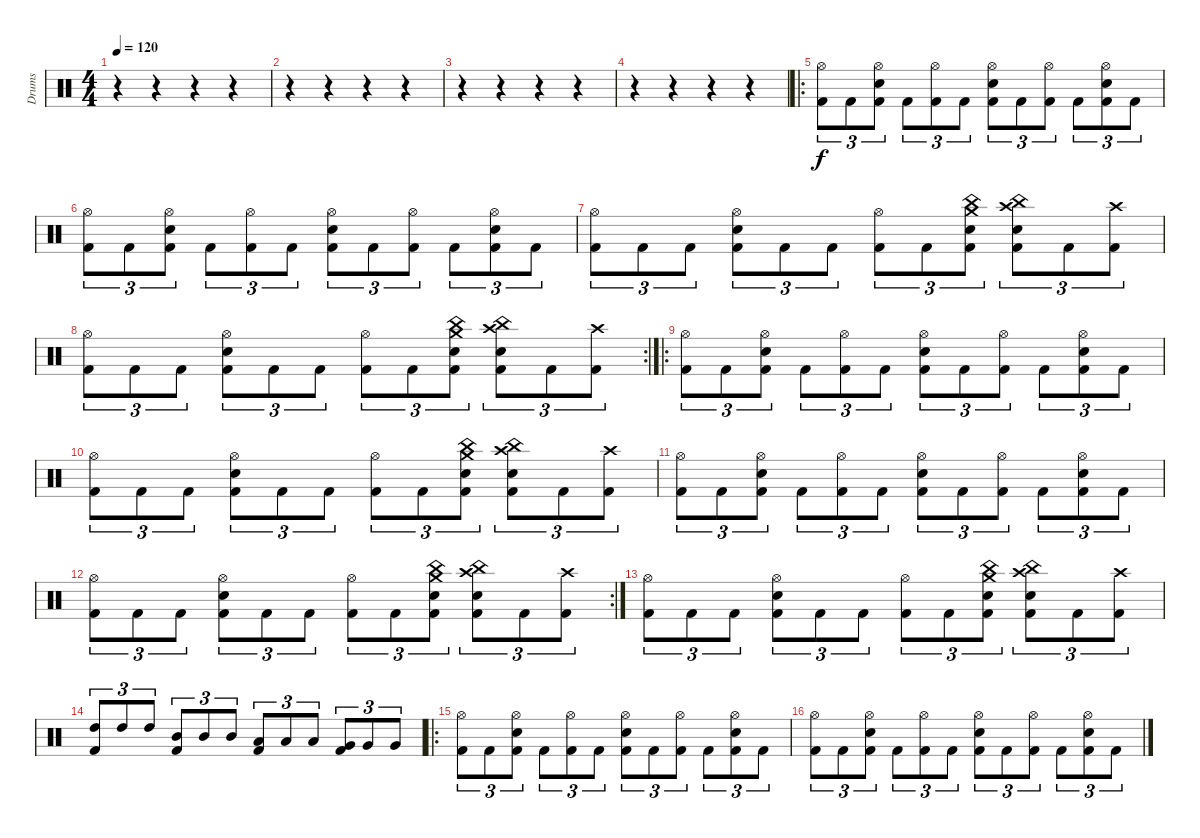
\track ("Drums" "Drums") {instrument percussion}
\staff {score}
\articulation defaults
\ts (4 4)
\tempo 120
\clef neutral
\ks c
r.4{dy f} r.4 r.4 r.4 |
r.4 r.4 r.4 r.4 |
r.4 r.4 r.4 r.4 |
r.4 r.4 r.4 r.4 |
\ro
("Hi-Hat (open)" "Kick (hit) 2").8{tu (3 2)} "Kick (hit) 2".8{tu (3 2)} ("Hi-Hat (open)" "Snare (hit) 2" "Kick (hit) 2").8{tu (3 2)} "Kick (hit) 2".8{tu (3 2)} ("Hi-Hat (open)" "Kick (hit) 2").8{tu (3 2)} "Kick (hit) 2".8{tu (3 2)} ("Hi-Hat (open)" "Snare (hit) 2" "Kick (hit) 2").8{tu (3 2)} "Kick (hit) 2".8{tu (3 2)} ("Hi-Hat (open)" "Kick (hit) 2").8{tu (3 2)} "Kick (hit) 2".8{tu (3 2)} ("Hi-Hat (open)" "Snare (hit) 2" "Kick (hit) 2").8{tu (3 2)} "Kick (hit) 2".8{tu (3 2)} |
("Hi-Hat (open)" "Kick (hit) 2").8{tu (3 2)} "Kick (hit) 2".8{tu (3 2)} ("Hi-Hat (open)" "Snare (hit) 2" "Kick (hit) 2").8{tu (3 2)} "Kick (hit) 2".8{tu (3 2)} ("Hi-Hat (open)" "Kick (hit) 2").8{tu (3 2)} "Kick (hit) 2".8{tu (3 2)} ("Hi-Hat (open)" "Snare (hit) 2" "Kick (hit) 2").8{tu (3 2)} "Kick (hit) 2".8{tu (3 2)} ("Hi-Hat (open)" "Kick (hit) 2").8{tu (3 2)} "Kick (hit) 2".8{tu (3 2)} ("Hi-Hat (open)" "Snare (hit) 2" "Kick (hit) 2").8{tu (3 2)} "Kick (hit) 2".8{tu (3 2)} |
("Hi-Hat (open)" "Kick (hit) 2").8{tu (3 2)} "Kick (hit) 2".8{tu (3 2)} "Kick (hit) 2".8{tu (3 2)} ("Hi-Hat (open)" "Snare (hit) 2" "Kick (hit) 2").8{tu (3 2)} "Kick (hit) 2".8{tu (3 2)} "Kick (hit) 2".8{tu (3 2)} ("Hi-Hat (open)" "Kick (hit) 2").8{tu (3 2)} "Kick (hit) 2".8{tu (3 2)} ("China (hit)" "Crash medium (hit)" "Snare (hit) 2" "Kick (hit) 2").8{tu (3 2)} ("China (hit)" "Crash high (hit)" "Snare (hit) 2" "Kick (hit) 2").8{tu (3 2)} "Kick (hit) 2".8{tu (3 2)} ("Crash high (hit)" "Kick (hit) 2").8{tu (3 2)} |
\rc 2
("Hi-Hat (open)" "Kick (hit) 2").8{tu (3 2)} "Kick (hit) 2".8{tu (3 2)} "Kick (hit) 2".8{tu (3 2)} ("Hi-Hat (open)" "Snare (hit) 2" "Kick (hit) 2").8{tu (3 2)} "Kick (hit) 2".8{tu (3 2)} "Kick (hit) 2".8{tu (3 2)} ("Hi-Hat (open)" "Kick (hit) 2").8{tu (3 2)} "Kick (hit) 2".8{tu (3 2)} ("China (hit)" "Crash medium (hit)" "Snare (hit) 2" "Kick (hit) 2").8{tu (3 2)} ("China (hit)" "Crash high (hit)" "Snare (hit) 2" "Kick (hit) 2").8{tu (3 2)} "Kick (hit) 2".8{tu (3 2)} ("Crash high (hit)" "Kick (hit) 2").8{tu (3 2)} |
\ro
("Hi-Hat (open)" "Kick (hit) 2").8{tu (3 2)} "Kick (hit) 2".8{tu (3 2)} ("Hi-Hat (open)" "Snare (hit) 2" "Kick (hit) 2").8{tu (3 2)} "Kick (hit) 2".8{tu (3 2)} ("Hi-Hat (open)" "Kick (hit) 2").8{tu (3 2)} "Kick (hit) 2".8{tu (3 2)} ("Hi-Hat (open)" "Snare (hit) 2" "Kick (hit) 2").8{tu (3 2)} "Kick (hit) 2".8{tu (3 2)} ("Hi-Hat (open)" "Kick (hit) 2").8{tu (3 2)} "Kick (hit) 2".8{tu (3 2)} ("Hi-Hat (open)" "Snare (hit) 2" "Kick (hit) 2").8{tu (3 2)} "Kick (hit) 2".8{tu (3 2)} |
("Hi-Hat (open)" "Kick (hit) 2").8{tu (3 2)} "Kick (hit) 2".8{tu (3 2)} "Kick (hit) 2".8{tu (3 2)} ("Hi-Hat (open)" "Snare (hit) 2" "Kick (hit) 2").8{tu (3 2)} "Kick (hit) 2".8{tu (3 2)} "Kick (hit) 2".8{tu (3 2)} ("Hi-Hat (open)" "Kick (hit) 2").8{tu (3 2)} "Kick (hit) 2".8{tu (3 2)} ("China (hit)" "Crash medium (hit)" "Snare (hit) 2" "Kick (hit) 2").8{tu (3 2)} ("China (hit)" "Crash high (hit)" "Snare (hit) 2" "Kick (hit) 2").8{tu (3 2)} "Kick (hit) 2".8{tu (3 2)} ("Crash high (hit)" "Kick (hit) 2").8{tu (3 2)} |
("Hi-Hat (open)" "Kick (hit) 2").8{tu (3 2)} "Kick (hit) 2".8{tu (3 2)} ("Hi-Hat (open)" "Snare (hit) 2" "Kick (hit) 2").8{tu (3 2)} "Kick (hit) 2".8{tu (3 2)} ("Hi-Hat (open)" "Kick (hit) 2").8{tu (3 2)} "Kick (hit) 2".8{tu (3 2)} ("Hi-Hat (open)" "Snare (hit) 2" "Kick (hit) 2").8{tu (3 2)} "Kick (hit) 2".8{tu (3 2)} ("Hi-Hat (open)" "Kick (hit) 2").8{tu (3 2)} "Kick (hit) 2".8{tu (3 2)} ("Hi-Hat (open)" "Snare (hit) 2" "Kick (hit) 2").8{tu (3 2)} "Kick (hit) 2".8{tu (3 2)} |
\rc 2
("Hi-Hat (open)" "Kick (hit) 2").8{tu (3 2)} "Kick (hit) 2".8{tu (3 2)} "Kick (hit) 2".8{tu (3 2)} ("Hi-Hat (open)" "Snare (hit) 2" "Kick (hit) 2").8{tu (3 2)} "Kick (hit) 2".8{tu (3 2)} "Kick (hit) 2".8{tu (3 2)} ("Hi-Hat (open)" "Kick (hit) 2").8{tu (3 2)} "Kick (hit) 2".8{tu (3 2)} ("China (hit)" "Crash medium (hit)" "Snare (hit) 2" "Kick (hit) 2").8{tu (3 2)} ("China (hit)" "Crash high (hit)" "Snare (hit) 2" "Kick (hit) 2").8{tu (3 2)} "Kick (hit) 2".8{tu (3 2)} ("Crash high (hit)" "Kick (hit) 2").8{tu (3 2)} |
("Hi-Hat (open)" "Kick (hit) 2").8{tu (3 2)} "Kick (hit) 2".8{tu (3 2)} "Kick (hit) 2".8{tu (3 2)} ("Hi-Hat (open)" "Snare (hit) 2" "Kick (hit) 2").8{tu (3 2)} "Kick (hit) 2".8{tu (3 2)} "Kick (hit) 2".8{tu (3 2)} ("Hi-Hat (open)" "Kick (hit) 2").8{tu (3 2)} "Kick (hit) 2".8{tu (3 2)} ("China (hit)" "Crash medium (hit)" "Snare (hit) 2" "Kick (hit) 2").8{tu (3 2)} ("China (hit)" "Crash high (hit)" "Snare (hit) 2" "Kick (hit) 2").8{tu (3 2)} "Kick (hit) 2".8{tu (3 2)} ("Crash high (hit)" "Kick (hit) 2").8{tu (3 2)} |
("High Tom (hit)" "Kick (hit) 2").8{tu (3 2)} "High Tom (hit)".8{tu (3 2)} "High Tom (hit)".8{tu (3 2)} ("Mid Tom (hit)" "Kick (hit) 2").8{tu (3 2)} "Mid Tom (hit)".8{tu (3 2)} "Mid Tom (hit)".8{tu (3 2)} ("Low Tom (hit)" "Kick (hit) 2").8{tu (3 2)} "Low Tom (hit)".8{tu (3 2)} "Low Tom (hit)".8{tu (3 2)} ("Very Low Tom (hit)" "Kick (hit) 2").8{tu (3 2)} "Very Low Tom (hit)".8{tu (3 2)} "Very Low Tom (hit)".8{tu (3 2)} |
\ro
("Hi-Hat (open)" "Kick (hit) 2").8{tu (3 2)} "Kick (hit) 2".8{tu (3 2)} ("Hi-Hat (open)" "Snare (hit) 2" "Kick (hit) 2").8{tu (3 2)} "Kick (hit) 2".8{tu (3 2)} ("Hi-Hat (open)" "Kick (hit) 2").8{tu (3 2)} "Kick (hit) 2".8{tu (3 2)} ("Hi-Hat (open)" "Snare (hit) 2" "Kick (hit) 2").8{tu (3 2)} "Kick (hit) 2".8{tu (3 2)} ("Hi-Hat (open)" "Kick (hit) 2").8{tu (3 2)} "Kick (hit) 2".8{tu (3 2)} ("Hi-Hat (open)" "Snare (hit) 2" "Kick (hit) 2").8{tu (3 2)} "Kick (hit) 2".8{tu (3 2)} |
("Hi-Hat (open)" "Kick (hit) 2").8{tu (3 2)} "Kick (hit) 2".8{tu (3 2)} ("Hi-Hat (open)" "Snare (hit) 2" "Kick (hit) 2").8{tu (3 2)} "Kick (hit) 2".8{tu (3 2)} ("Hi-Hat (open)" "Kick (hit) 2").8{tu (3 2)} "Kick (hit) 2".8{tu (3 2)} ("Hi-Hat (open)" "Snare (hit) 2" "Kick (hit) 2").8{tu (3 2)} "Kick (hit) 2".8{tu (3 2)} ("Hi-Hat (open)" "Kick (hit) 2").8{tu (3 2)} "Kick (hit) 2".8{tu (3 2)} ("Hi-Hat (open)" "Snare (hit) 2" "Kick (hit) 2").8{tu (3 2)} "Kick (hit) 2".8{tu (3 2)}
